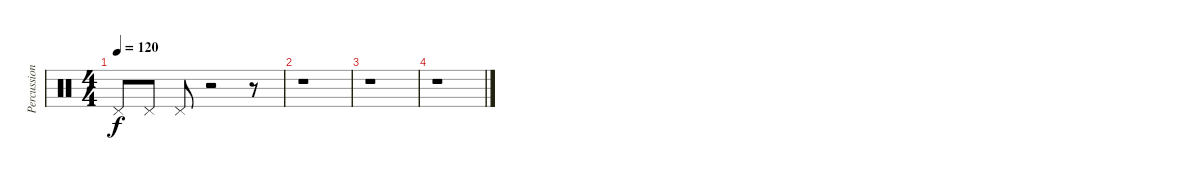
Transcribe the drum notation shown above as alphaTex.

\track ("Percussion" "Percussion") {instrument percussion}
\staff {score}
\articulation defaults
\ts (4 4)
\tempo 120
\clef neutral
\ks c "Pedal Hi-Hat (hit)".8{dy f} "Pedal Hi-Hat (hit)".8 "Pedal Hi-Hat (hit)".8
r.2 r.8 |
r.1 |
r.1 |
r.1
